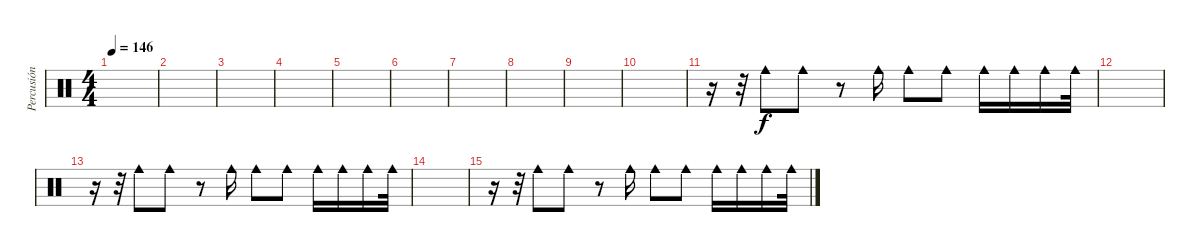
\track ("Percusión" "Percusión") {instrument percussion}
\staff {score}
\articulation defaults
\ts (4 4)
\tempo 146
\clef neutral
\ks c
|
|
|
|
|
|
|
|
|
|
r.16 r.32 "Cowbell medium (hit)".8 "Cowbell medium (hit)".8 r.8 "Cowbell medium (hit)".16 "Cowbell medium (hit)".8 "Cowbell medium (hit)".8 "Cowbell medium (hit)".16 "Cowbell medium (hit)".16 "Cowbell medium (hit)".16 "Cowbell medium (hit)".32 |
|
r.16 r.32 "Cowbell medium (hit)".8 "Cowbell medium (hit)".8 r.8 "Cowbell medium (hit)".16 "Cowbell medium (hit)".8 "Cowbell medium (hit)".8 "Cowbell medium (hit)".16 "Cowbell medium (hit)".16 "Cowbell medium (hit)".16 "Cowbell medium (hit)".32 |
|
r.16 r.32 "Cowbell medium (hit)".8 "Cowbell medium (hit)".8 r.8 "Cowbell medium (hit)".16 "Cowbell medium (hit)".8 "Cowbell medium (hit)".8 "Cowbell medium (hit)".16 "Cowbell medium (hit)".16 "Cowbell medium (hit)".16 "Cowbell medium (hit)".32
